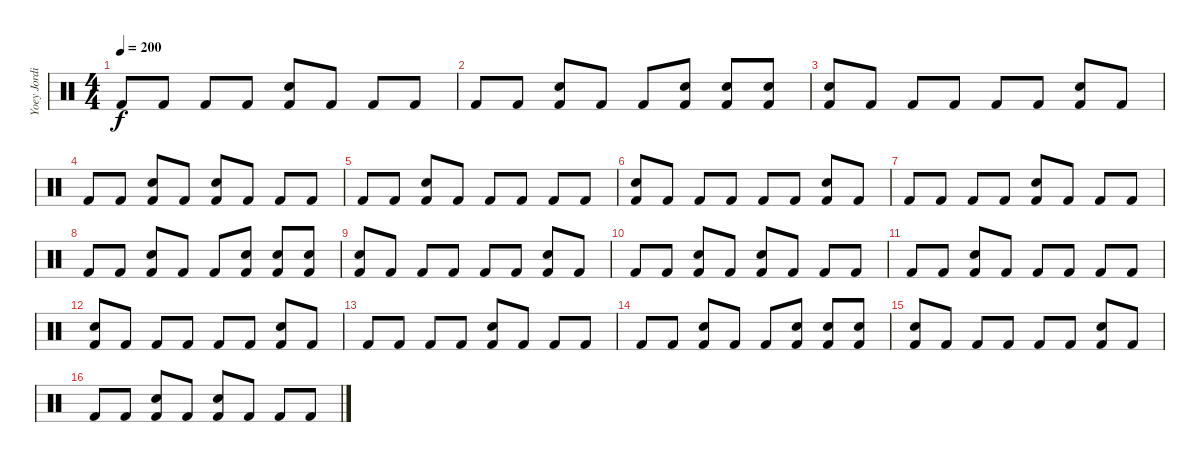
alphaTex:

\track ("Yoey Jordison" "Yoey Jordi") {instrument percussion}
\staff {score}
\articulation defaults
\ts (4 4)
\tempo 200
\clef neutral
\ks c "Kick (hit) 2".8{dy f} "Kick (hit) 2".8 "Kick (hit) 2".8 "Kick (hit) 2".8
("Electric Snare (hit)" "Kick (hit) 2").8 "Kick (hit) 2".8 "Kick (hit) 2".8 "Kick (hit) 2".8 |
"Kick (hit) 2".8 "Kick (hit) 2".8 ("Electric Snare (hit)" "Kick (hit) 2").8 "Kick (hit) 2".8 "Kick (hit) 2".8 ("Electric Snare (hit)" "Kick (hit) 2").8 ("Electric Snare (hit)" "Kick (hit) 2").8 ("Electric Snare (hit)" "Kick (hit) 2").8 |
("Snare (hit) 2" "Kick (hit) 2").8 "Kick (hit) 2".8 "Kick (hit) 2".8 "Kick (hit) 2".8 "Kick (hit) 2".8 "Kick (hit) 2".8 ("Snare (hit) 2" "Kick (hit) 2").8 "Kick (hit) 2".8 |
"Kick (hit) 2".8 "Kick (hit) 2".8 ("Electric Snare (hit)" "Kick (hit) 2").8 "Kick (hit) 2".8 ("Snare (hit) 2" "Kick (hit) 2").8 "Kick (hit) 2".8 "Kick (hit) 2".8 "Kick (hit) 2".8 |
"Kick (hit) 2".8 "Kick (hit) 2".8 ("Snare (hit) 2" "Kick (hit) 2").8 "Kick (hit) 2".8 "Kick (hit) 2".8 "Kick (hit) 2".8 "Kick (hit) 2".8 "Kick (hit) 2".8 |
("Electric Snare (hit)" "Kick (hit) 2").8 "Kick (hit) 2".8 "Kick (hit) 2".8 "Kick (hit) 2".8 "Kick (hit) 2".8 "Kick (hit) 2".8 ("Electric Snare (hit)" "Kick (hit) 2").8 "Kick (hit) 2".8 |
"Kick (hit) 2".8 "Kick (hit) 2".8 "Kick (hit) 2".8 "Kick (hit) 2".8 ("Electric Snare (hit)" "Kick (hit) 2").8 "Kick (hit) 2".8 "Kick (hit) 2".8 "Kick (hit) 2".8 |
"Kick (hit) 2".8 "Kick (hit) 2".8 ("Electric Snare (hit)" "Kick (hit) 2").8 "Kick (hit) 2".8 "Kick (hit) 2".8 ("Electric Snare (hit)" "Kick (hit) 2").8 ("Electric Snare (hit)" "Kick (hit) 2").8 ("Electric Snare (hit)" "Kick (hit) 2").8 |
("Snare (hit) 2" "Kick (hit) 2").8 "Kick (hit) 2".8 "Kick (hit) 2".8 "Kick (hit) 2".8 "Kick (hit) 2".8 "Kick (hit) 2".8 ("Snare (hit) 2" "Kick (hit) 2").8 "Kick (hit) 2".8 |
"Kick (hit) 2".8 "Kick (hit) 2".8 ("Electric Snare (hit)" "Kick (hit) 2").8 "Kick (hit) 2".8 ("Snare (hit) 2" "Kick (hit) 2").8 "Kick (hit) 2".8 "Kick (hit) 2".8 "Kick (hit) 2".8 |
"Kick (hit) 2".8 "Kick (hit) 2".8 ("Snare (hit) 2" "Kick (hit) 2").8 "Kick (hit) 2".8 "Kick (hit) 2".8 "Kick (hit) 2".8 "Kick (hit) 2".8 "Kick (hit) 2".8 |
("Electric Snare (hit)" "Kick (hit) 2").8 "Kick (hit) 2".8 "Kick (hit) 2".8 "Kick (hit) 2".8 "Kick (hit) 2".8 "Kick (hit) 2".8 ("Electric Snare (hit)" "Kick (hit) 2").8 "Kick (hit) 2".8 |
"Kick (hit) 2".8 "Kick (hit) 2".8 "Kick (hit) 2".8 "Kick (hit) 2".8 ("Electric Snare (hit)" "Kick (hit) 2").8 "Kick (hit) 2".8 "Kick (hit) 2".8 "Kick (hit) 2".8 |
"Kick (hit) 2".8 "Kick (hit) 2".8 ("Electric Snare (hit)" "Kick (hit) 2").8 "Kick (hit) 2".8 "Kick (hit) 2".8 ("Electric Snare (hit)" "Kick (hit) 2").8 ("Electric Snare (hit)" "Kick (hit) 2").8 ("Electric Snare (hit)" "Kick (hit) 2").8 |
("Snare (hit) 2" "Kick (hit) 2").8 "Kick (hit) 2".8 "Kick (hit) 2".8 "Kick (hit) 2".8 "Kick (hit) 2".8 "Kick (hit) 2".8 ("Snare (hit) 2" "Kick (hit) 2").8 "Kick (hit) 2".8 |
"Kick (hit) 2".8 "Kick (hit) 2".8 ("Electric Snare (hit)" "Kick (hit) 2").8 "Kick (hit) 2".8 ("Snare (hit) 2" "Kick (hit) 2").8 "Kick (hit) 2".8 "Kick (hit) 2".8 "Kick (hit) 2".8
